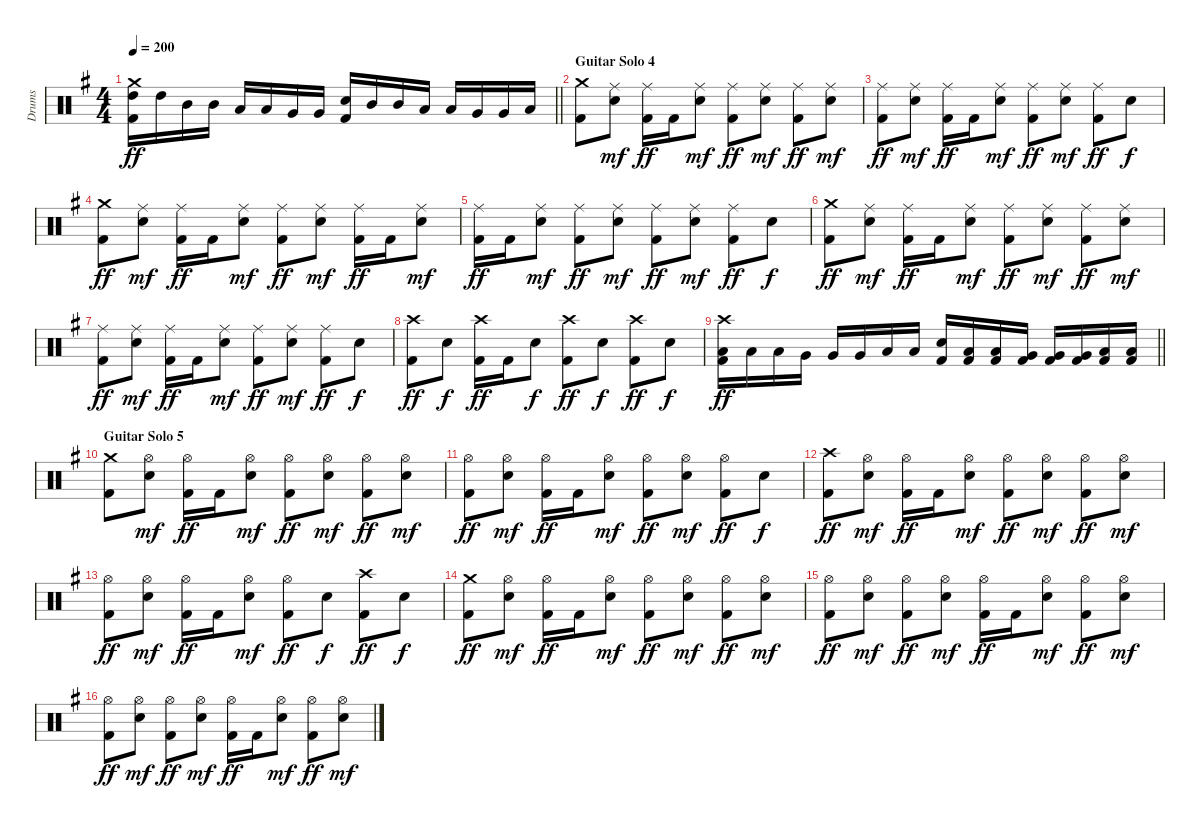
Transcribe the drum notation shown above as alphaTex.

\track ("Drums" "Drums") {instrument percussion}
\staff {score}
\articulation defaults
\ts (4 4)
\tempo 200
\clef neutral
\barLineRight lightlight
\ks g
("Crash medium (hit)" "High Tom (hit)" "Kick (hit) 2").16{dy ff} "High Tom (hit)".16 "Mid Tom (hit)".16 "Mid Tom (hit)".16 "Low Tom (hit)".16 "Low Tom (hit)".16 "Very Low Tom (hit)".16 "Very Low Tom (hit)".16 ("Snare (hit) 2" "Kick (hit) 2").16 "Mid Tom (hit)".16 "Mid Tom (hit)".16 "Low Tom (hit)".16 "Low Tom (hit)".16 "Very Low Tom (hit)".16 "Very Low Tom (hit)".16 "Low Floor Tom (hit)".16 |
\section ("" "Guitar Solo 4")
("Crash medium (hit)" "Kick (hit) 2").8 ("Ride (middle)" "Snare (hit) 2").8{dy mf} ("Ride (middle)" "Kick (hit) 2").16{dy ff} "Kick (hit) 2".16 ("Ride (middle)" "Snare (hit) 2").8{dy mf} ("Ride (middle)" "Kick (hit) 2").8{dy ff} ("Ride (middle)" "Snare (hit) 2").8{dy mf} ("Ride (middle)" "Kick (hit) 2").8{dy ff} ("Ride (middle)" "Snare (hit) 2").8{dy mf} |
("Ride (middle)" "Kick (hit) 2").8{dy ff} ("Ride (middle)" "Snare (hit) 2").8{dy mf} ("Ride (middle)" "Kick (hit) 2").16{dy ff} "Kick (hit) 2".16 ("Ride (middle)" "Snare (hit) 2").8{dy mf} ("Ride (middle)" "Kick (hit) 2").8{dy ff} ("Ride (middle)" "Snare (hit) 2").8{dy mf} ("Ride (middle)" "Kick (hit) 2").8{dy ff} "Snare (hit) 2".8{dy f} |
("Crash medium (hit)" "Kick (hit) 2").8{dy ff} ("Ride (middle)" "Snare (hit) 2").8{dy mf} ("Ride (middle)" "Kick (hit) 2").16{dy ff} "Kick (hit) 2".16 ("Ride (middle)" "Snare (hit) 2").8{dy mf} ("Ride (middle)" "Kick (hit) 2").8{dy ff} ("Ride (middle)" "Snare (hit) 2").8{dy mf} ("Ride (middle)" "Kick (hit) 2").16{dy ff} "Kick (hit) 2".16 ("Ride (middle)" "Snare (hit) 2").8{dy mf} |
("Ride (middle)" "Kick (hit) 2").16{dy ff} "Kick (hit) 2".16 ("Ride (middle)" "Snare (hit) 2").8{dy mf} ("Ride (middle)" "Kick (hit) 2").8{dy ff} ("Ride (middle)" "Snare (hit) 2").8{dy mf} ("Ride (middle)" "Kick (hit) 2").8{dy ff} ("Ride (middle)" "Snare (hit) 2").8{dy mf} ("Ride (middle)" "Kick (hit) 2").8{dy ff} "Snare (hit) 2".8{dy f} |
("Crash medium (hit)" "Kick (hit) 2").8{dy ff} ("Ride (middle)" "Snare (hit) 2").8{dy mf} ("Ride (middle)" "Kick (hit) 2").16{dy ff} "Kick (hit) 2".16 ("Ride (middle)" "Snare (hit) 2").8{dy mf} ("Ride (middle)" "Kick (hit) 2").8{dy ff} ("Ride (middle)" "Snare (hit) 2").8{dy mf} ("Ride (middle)" "Kick (hit) 2").8{dy ff} ("Ride (middle)" "Snare (hit) 2").8{dy mf} |
("Ride (middle)" "Kick (hit) 2").8{dy ff} ("Ride (middle)" "Snare (hit) 2").8{dy mf} ("Ride (middle)" "Kick (hit) 2").16{dy ff} "Kick (hit) 2".16 ("Ride (middle)" "Snare (hit) 2").8{dy mf} ("Ride (middle)" "Kick (hit) 2").8{dy ff} ("Ride (middle)" "Snare (hit) 2").8{dy mf} ("Ride (middle)" "Kick (hit) 2").8{dy ff} "Snare (hit) 2".8{dy f} |
("Crash high (hit)" "Kick (hit) 2").8{dy ff} "Snare (hit) 2".8{dy f} ("Crash high (hit)" "Kick (hit) 2").16{dy ff} "Kick (hit) 2".16 "Snare (hit) 2".8{dy f} ("Crash high (hit)" "Kick (hit) 2").8{dy ff} "Snare (hit) 2".8{dy f} ("Crash high (hit)" "Kick (hit) 2").8{dy ff} "Snare (hit) 2".8{dy f} |
\barLineRight lightlight
("Crash high (hit)" "Low Tom (hit)" "Kick (hit) 2").16{dy ff} "Low Tom (hit)".16 "Low Tom (hit)".16 "Very Low Tom (hit)".16 "Very Low Tom (hit)".16 "Very Low Tom (hit)".16 "Low Floor Tom (hit)".16 "Low Floor Tom (hit)".16 ("Snare (hit) 2" "Kick (hit) 2").16 ("Low Tom (hit)" "Kick (hit) 2").16 ("Low Tom (hit)" "Kick (hit) 2").16 ("Very Low Tom (hit)" "Kick (hit) 2").16 ("Very Low Tom (hit)" "Kick (hit) 2").16 ("Very Low Tom (hit)" "Kick (hit) 2").16 ("Low Floor Tom (hit)" "Kick (hit) 2").16 ("Low Floor Tom (hit)" "Kick (hit) 2").16 |
\section ("" "Guitar Solo 5")
("Crash medium (hit)" "Kick (hit) 2").8 ("Hi-Hat (open)" "Snare (hit) 2").8{dy mf} ("Hi-Hat (open)" "Kick (hit) 2").16{dy ff} "Kick (hit) 2".16 ("Hi-Hat (open)" "Snare (hit) 2").8{dy mf} ("Hi-Hat (open)" "Kick (hit) 2").8{dy ff} ("Hi-Hat (open)" "Snare (hit) 2").8{dy mf} ("Hi-Hat (open)" "Kick (hit) 2").8{dy ff} ("Hi-Hat (open)" "Snare (hit) 2").8{dy mf} |
("Hi-Hat (open)" "Kick (hit) 2").8{dy ff} ("Hi-Hat (open)" "Snare (hit) 2").8{dy mf} ("Hi-Hat (open)" "Kick (hit) 2").16{dy ff} "Kick (hit) 2".16 ("Hi-Hat (open)" "Snare (hit) 2").8{dy mf} ("Hi-Hat (open)" "Kick (hit) 2").8{dy ff} ("Hi-Hat (open)" "Snare (hit) 2").8{dy mf} ("Hi-Hat (open)" "Kick (hit) 2").8{dy ff} "Snare (hit) 2".8{dy f} |
("Crash high (hit)" "Kick (hit) 2").8{dy ff} ("Hi-Hat (open)" "Snare (hit) 2").8{dy mf} ("Hi-Hat (open)" "Kick (hit) 2").16{dy ff} "Kick (hit) 2".16 ("Hi-Hat (open)" "Snare (hit) 2").8{dy mf} ("Hi-Hat (open)" "Kick (hit) 2").8{dy ff} ("Hi-Hat (open)" "Snare (hit) 2").8{dy mf} ("Hi-Hat (open)" "Kick (hit) 2").8{dy ff} ("Hi-Hat (open)" "Snare (hit) 2").8{dy mf} |
("Hi-Hat (open)" "Kick (hit) 2").8{dy ff} ("Hi-Hat (open)" "Snare (hit) 2").8{dy mf} ("Hi-Hat (open)" "Kick (hit) 2").16{dy ff} "Kick (hit) 2".16 ("Hi-Hat (open)" "Snare (hit) 2").8{dy mf} ("Hi-Hat (open)" "Kick (hit) 2").8{dy ff} "Snare (hit) 2".8{dy f} ("Crash high (hit)" "Kick (hit) 2").8{dy ff} "Snare (hit) 2".8{dy f} |
("Crash medium (hit)" "Kick (hit) 2").8{dy ff} ("Hi-Hat (open)" "Snare (hit) 2").8{dy mf} ("Hi-Hat (open)" "Kick (hit) 2").16{dy ff} "Kick (hit) 2".16 ("Hi-Hat (open)" "Snare (hit) 2").8{dy mf} ("Hi-Hat (open)" "Kick (hit) 2").8{dy ff} ("Hi-Hat (open)" "Snare (hit) 2").8{dy mf} ("Hi-Hat (open)" "Kick (hit) 2").8{dy ff} ("Hi-Hat (open)" "Snare (hit) 2").8{dy mf} |
("Hi-Hat (open)" "Kick (hit) 2").8{dy ff} ("Hi-Hat (open)" "Snare (hit) 2").8{dy mf} ("Hi-Hat (open)" "Kick (hit) 2").8{dy ff} ("Hi-Hat (open)" "Snare (hit) 2").8{dy mf} ("Hi-Hat (open)" "Kick (hit) 2").16{dy ff} "Kick (hit) 2".16 ("Hi-Hat (open)" "Snare (hit) 2").8{dy mf} ("Hi-Hat (open)" "Kick (hit) 2").8{dy ff} ("Hi-Hat (open)" "Snare (hit) 2").8{dy mf} |
("Hi-Hat (open)" "Kick (hit) 2").8{dy ff} ("Hi-Hat (open)" "Snare (hit) 2").8{dy mf} ("Hi-Hat (open)" "Kick (hit) 2").8{dy ff} ("Hi-Hat (open)" "Snare (hit) 2").8{dy mf} ("Hi-Hat (open)" "Kick (hit) 2").16{dy ff} "Kick (hit) 2".16 ("Hi-Hat (open)" "Snare (hit) 2").8{dy mf} ("Hi-Hat (open)" "Kick (hit) 2").8{dy ff} ("Hi-Hat (open)" "Snare (hit) 2").8{dy mf}
